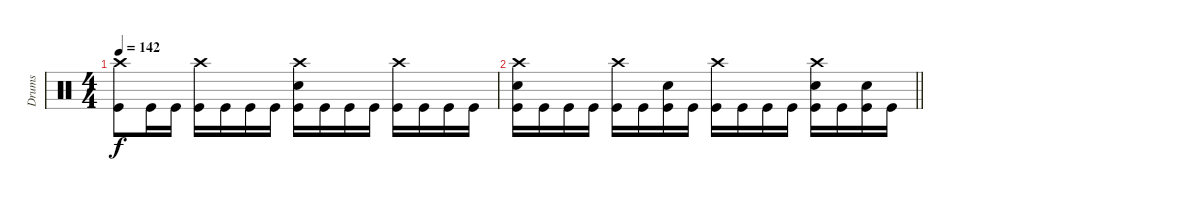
\track ("Drums" "Drums") {instrument percussion}
\staff
\articulation defaults
\ts (4 4)
\tempo 142
\clef neutral
\ks c
("Crash high (hit)" "Kick (hit)").8{dy f} "Kick (hit)".16 "Kick (hit)".16 ("Crash high (hit)" "Kick (hit)").16 "Kick (hit)".16 "Kick (hit)".16 "Kick (hit)".16 ("Crash high (hit)" "Electric Snare (hit)" "Kick (hit)").16 "Kick (hit)".16 "Kick (hit)".16 "Kick (hit)".16 ("Crash high (hit)" "Kick (hit)").16 "Kick (hit)".16 "Kick (hit)".16 "Kick (hit)".16 |
\barLineRight lightlight
("Crash high (hit)" "Electric Snare (hit)" "Kick (hit)").16 "Kick (hit)".16 "Kick (hit)".16 "Kick (hit)".16 ("Crash high (hit)" "Kick (hit)").16 "Kick (hit)".16 ("Electric Snare (hit)" "Kick (hit)").16 "Kick (hit)".16 ("Crash high (hit)" "Kick (hit)").16 "Kick (hit)".16 "Kick (hit)".16 "Kick (hit)".16 ("Crash high (hit)" "Electric Snare (hit)" "Kick (hit)").16 "Kick (hit)".16 ("Electric Snare (hit)" "Kick (hit)").16 "Kick (hit)".16
